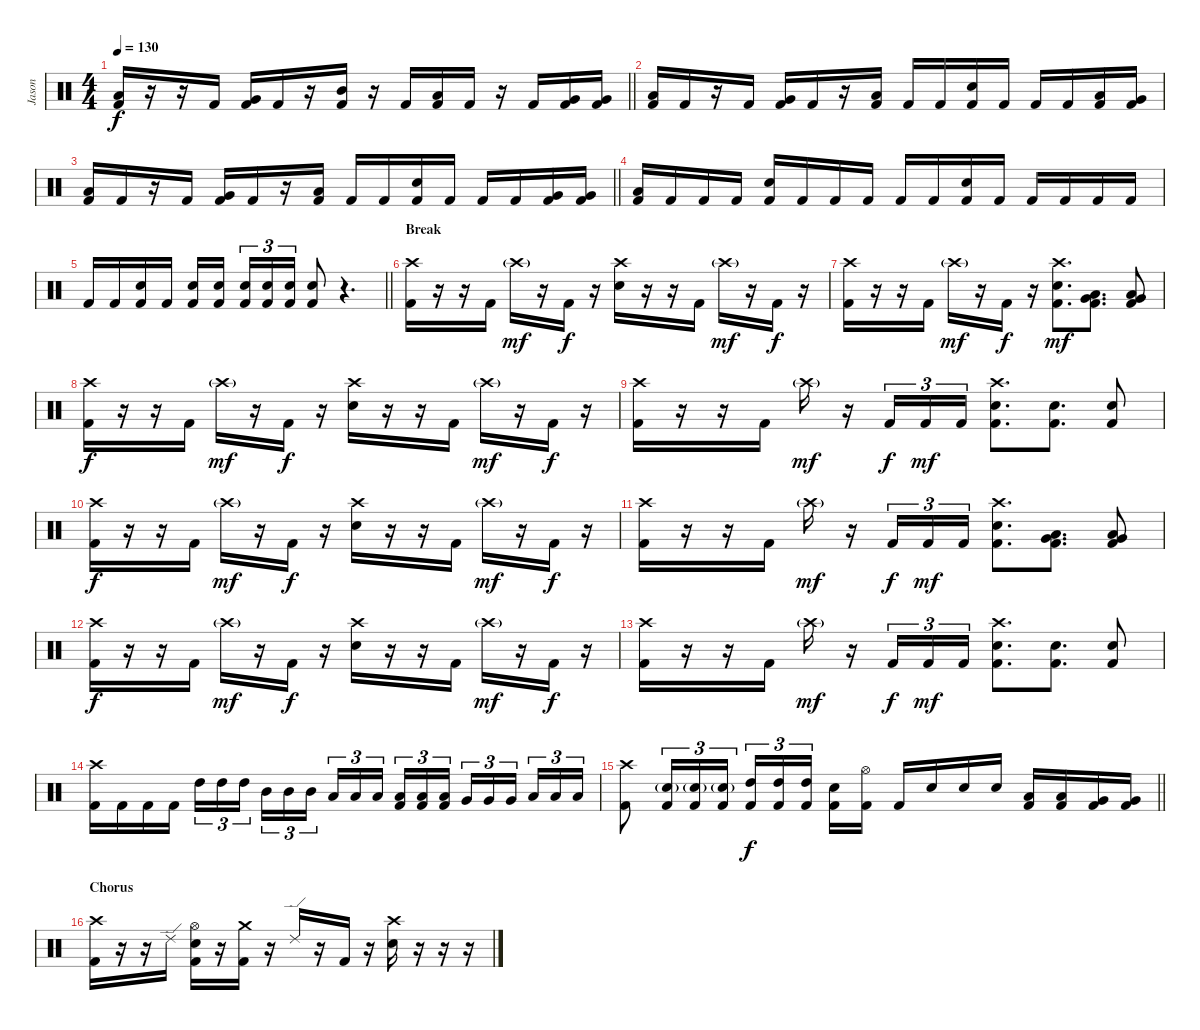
\track ("Jason" "Jason") {instrument percussion}
\staff {score}
\articulation defaults
\ts (4 4)
\tempo 130
\clef neutral
\barLineRight lightlight
\ks c
("Low Floor Tom (hit)" "Kick (hit) 2").16{dy f} r.16 r.16 "Kick (hit) 2".16 ("Very Low Tom (hit)" "Kick (hit) 2").16 "Kick (hit) 2".16 r.16 ("Mid Tom (hit)" "Kick (hit) 2").16 r.16 "Kick (hit) 2".16 ("Low Tom (hit)" "Kick (hit) 2").16 "Kick (hit) 2".16 r.16 "Kick (hit) 2".16 ("Very Low Tom (hit)" "Kick (hit) 2").16 ("Very Low Tom (hit)" "Kick (hit) 2").16 |
("Low Floor Tom (hit)" "Kick (hit) 2").16 "Kick (hit) 2".16 r.16 "Kick (hit) 2".16 ("Very Low Tom (hit)" "Kick (hit) 2").16 "Kick (hit) 2".16 r.16 ("Low Tom (hit)" "Kick (hit) 2").16 "Kick (hit) 2".16 "Kick (hit) 2".16 ("Electric Snare (hit)" "Kick (hit) 2").16 "Kick (hit) 2".16 "Kick (hit) 2".16 "Kick (hit) 2".16 ("Low Tom (hit)" "Kick (hit) 2").16 ("Very Low Tom (hit)" "Kick (hit) 2").16 |
\barLineRight lightlight
("Low Floor Tom (hit)" "Kick (hit) 2").16 "Kick (hit) 2".16 r.16 "Kick (hit) 2".16 ("Very Low Tom (hit)" "Kick (hit) 2").16 "Kick (hit) 2".16 r.16 ("Low Tom (hit)" "Kick (hit) 2").16 "Kick (hit) 2".16 "Kick (hit) 2".16 ("Electric Snare (hit)" "Kick (hit) 2").16 "Kick (hit) 2".16 "Kick (hit) 2".16 "Kick (hit) 2".16 ("Very Low Tom (hit)" "Kick (hit) 2").16 ("Very Low Tom (hit)" "Kick (hit) 2").16 |
("Low Floor Tom (hit)" "Kick (hit) 2").16 "Kick (hit) 2".16 "Kick (hit) 2".16 "Kick (hit) 2".16 ("Electric Snare (hit)" "Kick (hit) 2").16 "Kick (hit) 2".16 "Kick (hit) 2".16 "Kick (hit) 2".16 "Kick (hit) 2".16 "Kick (hit) 2".16 ("Electric Snare (hit)" "Kick (hit) 2").16 "Kick (hit) 2".16 "Kick (hit) 2".16 "Kick (hit) 2".16 "Kick (hit) 2".16 "Kick (hit) 2".16 |
\barLineRight lightlight "Kick (hit) 2".16 "Kick (hit) 2".16
("Electric Snare (hit)" "Kick (hit) 2").16 "Kick (hit) 2".16 ("Electric Snare (hit)" "Kick (hit) 2").16 ("Electric Snare (hit)" "Kick (hit) 2").16{beam splitsecondary} ("Electric Snare (hit)" "Kick (hit) 2").16{tu (3 2)} ("Electric Snare (hit)" "Kick (hit) 2").16{tu (3 2)} ("Electric Snare (hit)" "Kick (hit) 2").16{tu (3 2)} ("Electric Snare (hit)" "Kick (hit) 2").8 r.4{d} |
\section ("" "Break")
("Crash high (hit)" "Kick (hit) 2").16 r.16 r.16 "Kick (hit) 2".16 "Crash high (hit)"{g}.16{dy mf} r.16 "Kick (hit) 2".16{dy f} r.16 ("Crash high (hit)" "Electric Snare (hit)").16 r.16 r.16 "Kick (hit) 2".16 "Crash high (hit)"{g}.16{dy mf} r.16 "Kick (hit) 2".16{dy f} r.16 |
("Crash high (hit)" "Kick (hit) 2").16 r.16 r.16 "Kick (hit) 2".16 "Crash high (hit)"{g}.16{dy mf} r.16 "Kick (hit) 2".16{dy f} r.16 ("Crash high (hit)" "Electric Snare (hit)" "Kick (hit) 2").8{d dy mf} ("Very Low Tom (hit)" "Low Tom (hit)" "Kick (hit) 2").8{d} ("Very Low Tom (hit)" "Low Tom (hit)" "Kick (hit) 2").8 |
("Crash high (hit)" "Kick (hit) 2").16{dy f} r.16 r.16 "Kick (hit) 2".16 "Crash high (hit)"{g}.16{dy mf} r.16 "Kick (hit) 2".16{dy f} r.16 ("Crash high (hit)" "Electric Snare (hit)").16 r.16 r.16 "Kick (hit) 2".16 "Crash high (hit)"{g}.16{dy mf} r.16 "Kick (hit) 2".16{dy f} r.16 |
("Crash high (hit)" "Kick (hit) 2").16 r.16 r.16 "Kick (hit) 2".16 "Crash high (hit)"{g}.16{dy mf} r.16 "Kick (hit) 2".16{tu (3 2) dy f} "Kick (hit) 2".16{tu (3 2) dy mf} "Kick (hit) 2".16{tu (3 2)} ("Crash high (hit)" "Electric Snare (hit)" "Kick (hit) 2").8{d} ("Electric Snare (hit)" "Kick (hit) 2").8{d} ("Electric Snare (hit)" "Kick (hit) 2").8 |
("Crash high (hit)" "Kick (hit) 2").16{dy f} r.16 r.16 "Kick (hit) 2".16 "Crash high (hit)"{g}.16{dy mf} r.16 "Kick (hit) 2".16{dy f} r.16 ("Crash high (hit)" "Electric Snare (hit)").16 r.16 r.16 "Kick (hit) 2".16 "Crash high (hit)"{g}.16{dy mf} r.16 "Kick (hit) 2".16{dy f} r.16 |
("Crash high (hit)" "Kick (hit) 2").16 r.16 r.16 "Kick (hit) 2".16 "Crash high (hit)"{g}.16{dy mf} r.16 "Kick (hit) 2".16{tu (3 2) dy f} "Kick (hit) 2".16{tu (3 2) dy mf} "Kick (hit) 2".16{tu (3 2)} ("Crash high (hit)" "Electric Snare (hit)" "Kick (hit) 2").8{d} ("Low Tom (hit)" "Very Low Tom (hit)" "Kick (hit) 2").8{d} ("Low Tom (hit)" "Very Low Tom (hit)" "Kick (hit) 2").8 |
("Crash high (hit)" "Kick (hit) 2").16{dy f} r.16 r.16 "Kick (hit) 2".16 "Crash high (hit)"{g}.16{dy mf} r.16 "Kick (hit) 2".16{dy f} r.16 ("Crash high (hit)" "Electric Snare (hit)").16 r.16 r.16 "Kick (hit) 2".16 "Crash high (hit)"{g}.16{dy mf} r.16 "Kick (hit) 2".16{dy f} r.16 |
("Crash high (hit)" "Kick (hit) 2").16 r.16 r.16 "Kick (hit) 2".16 "Crash high (hit)"{g}.16{dy mf} r.16 "Kick (hit) 2".16{tu (3 2) dy f} "Kick (hit) 2".16{tu (3 2) dy mf} "Kick (hit) 2".16{tu (3 2)} ("Crash high (hit)" "Electric Snare (hit)" "Kick (hit) 2").8{d} ("Electric Snare (hit)" "Kick (hit) 2").8{d} ("Electric Snare (hit)" "Kick (hit) 2").8 |
("Crash high (hit)" "Kick (hit) 2").16 "Kick (hit) 2".16 "Kick (hit) 2".16 "Kick (hit) 2".16 "High Tom (hit)".16{tu (3 2)} "High Tom (hit)".16{tu (3 2)} "High Tom (hit)".16{tu (3 2) beam splitsecondary} "Mid Tom (hit)".16{tu (3 2)} "Mid Tom (hit)".16{tu (3 2)} "Mid Tom (hit)".16{tu (3 2)} "Low Tom (hit)".16{tu (3 2)} "Low Tom (hit)".16{tu (3 2)} "Low Tom (hit)".16{tu (3 2) beam splitsecondary} ("Low Tom (hit)" "Kick (hit) 2").16{tu (3 2)} ("Low Tom (hit)" "Kick (hit) 2").16{tu (3 2)} ("Low Tom (hit)" "Kick (hit) 2").16{tu (3 2)} "Very Low Tom (hit)".16{tu (3 2)} "Very Low Tom (hit)".16{tu (3 2)} "Very Low Tom (hit)".16{tu (3 2) beam splitsecondary} "Low Floor Tom (hit)".16{tu (3 2)} "Low Floor Tom (hit)".16{tu (3 2)} "Low Floor Tom (hit)".16{tu (3 2)} |
\barLineRight lightlight
("Crash high (hit)" "Kick (hit) 2").8 ("Electric Snare (hit)"{g} "Kick (hit) 2").16{tu (3 2)} ("Electric Snare (hit)"{g} "Kick (hit) 2").16{tu (3 2)} ("Electric Snare (hit)"{g} "Kick (hit) 2").16{tu (3 2)} ("High Tom (hit)" "Kick (hit) 2").16{tu (3 2) dy f} ("High Tom (hit)" "Kick (hit) 2").16{tu (3 2)} ("High Tom (hit)" "Kick (hit) 2").16{tu (3 2) beam splitsecondary} ("Electric Snare (hit)" "Kick (hit) 2").16 ("Hi-Hat (open)" "Kick (hit) 2").16 "Kick (hit) 2".16 "Electric Snare (hit)".16 "Electric Snare (hit)".16 "Electric Snare (hit)".16 ("Low Tom (hit)" "Kick (hit) 2").16 ("Low Tom (hit)" "Kick (hit) 2").16 ("Very Low Tom (hit)" "Kick (hit) 2").16 ("Very Low Tom (hit)" "Kick (hit) 2").16 |
\section ("" "Chorus")
("Crash high (hit)" "Kick (hit) 2").16 r.16 r.16 "Ride (edge) 2".16 ("Hi-Hat (open)" "Electric Snare (hit)" "Kick (hit) 2").16 r.16 ("Crash medium (hit)" "Kick (hit) 2").16 r.16 "Ride (edge) 2".16 r.16 "Kick (hit) 2".16 r.16 ("Crash high (hit)" "Electric Snare (hit)").16 r.16 r.16 r.16
